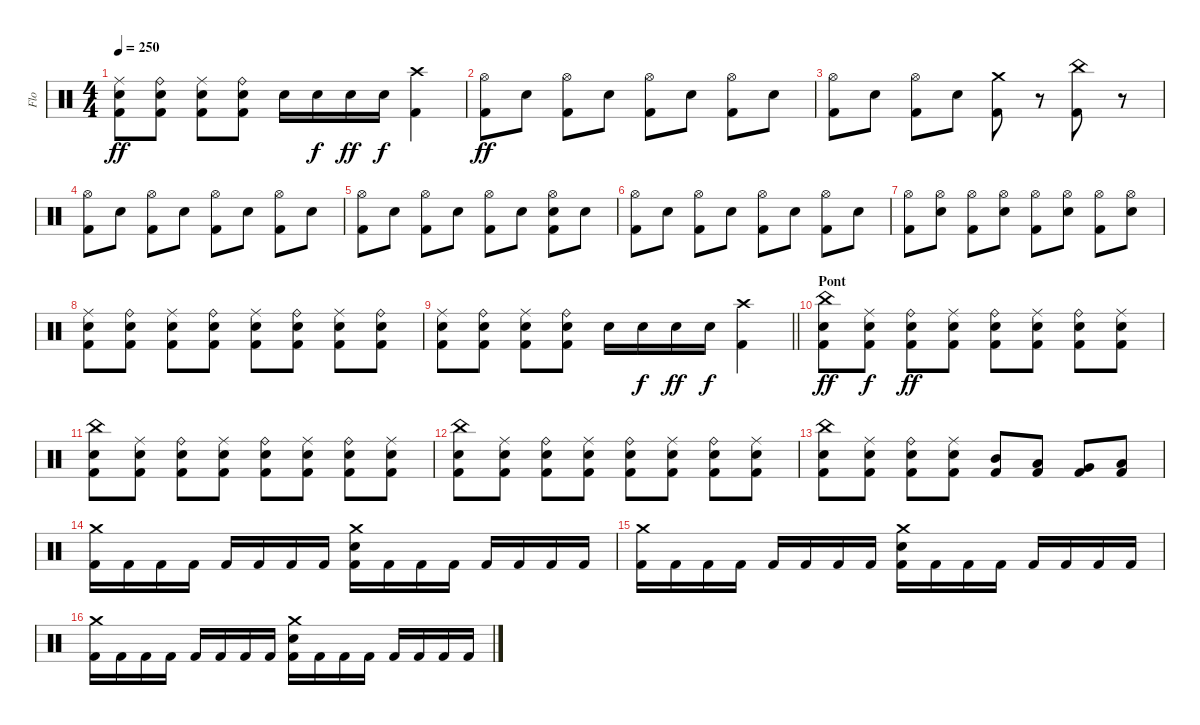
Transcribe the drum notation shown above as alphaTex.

\track ("Flo" "Flo") {instrument percussion}
\staff {score}
\articulation defaults
\ts (4 4)
\tempo 250
\clef neutral
\ks c
("Ride (middle)" "Electric Snare (hit)" "Kick (hit) 2").8{dy ff} ("Ride (bell)" "Electric Snare (hit)" "Kick (hit) 2").8 ("Ride (middle)" "Electric Snare (hit)" "Kick (hit) 2").8 ("Ride (bell)" "Electric Snare (hit)" "Kick (hit) 2").8 "Electric Snare (hit)".16 "Electric Snare (hit)".16{dy f} "Electric Snare (hit)".16{dy ff} "Electric Snare (hit)".16{dy f} ("Crash high (hit)" "Kick (hit) 2").4 |
("Hi-Hat (open)" "Kick (hit) 2").8{dy ff} "Electric Snare (hit)".8 ("Hi-Hat (open)" "Kick (hit) 2").8 "Electric Snare (hit)".8 ("Hi-Hat (open)" "Kick (hit) 2").8 "Electric Snare (hit)".8 ("Hi-Hat (open)" "Kick (hit) 2").8 "Electric Snare (hit)".8 |
("Hi-Hat (open)" "Kick (hit) 2").8 "Electric Snare (hit)".8 ("Hi-Hat (open)" "Kick (hit) 2").8 "Electric Snare (hit)".8 ("Crash medium (hit)" "Kick (hit) 2").8 r.8 ("China (hit)" "Kick (hit) 2").8 r.8 |
("Hi-Hat (open)" "Kick (hit) 2").8 "Electric Snare (hit)".8 ("Hi-Hat (open)" "Kick (hit) 2").8 "Electric Snare (hit)".8 ("Hi-Hat (open)" "Kick (hit) 2").8 "Electric Snare (hit)".8 ("Hi-Hat (open)" "Kick (hit) 2").8 "Electric Snare (hit)".8 |
("Hi-Hat (open)" "Kick (hit) 2").8 "Electric Snare (hit)".8 ("Hi-Hat (open)" "Kick (hit) 2").8 "Electric Snare (hit)".8 ("Hi-Hat (open)" "Kick (hit) 2").8 "Electric Snare (hit)".8 ("Hi-Hat (open)" "Electric Snare (hit)" "Kick (hit) 2").8 "Electric Snare (hit)".8 |
("Hi-Hat (open)" "Kick (hit) 2").8 "Electric Snare (hit)".8 ("Hi-Hat (open)" "Kick (hit) 2").8 "Electric Snare (hit)".8 ("Hi-Hat (open)" "Kick (hit) 2").8 "Electric Snare (hit)".8 ("Hi-Hat (open)" "Kick (hit) 2").8 "Electric Snare (hit)".8 |
("Hi-Hat (open)" "Kick (hit) 2").8 ("Hi-Hat (open)" "Electric Snare (hit)").8 ("Hi-Hat (open)" "Kick (hit) 2").8 ("Hi-Hat (open)" "Electric Snare (hit)").8 ("Hi-Hat (open)" "Kick (hit) 2").8 ("Hi-Hat (open)" "Electric Snare (hit)").8 ("Hi-Hat (open)" "Kick (hit) 2").8 ("Hi-Hat (open)" "Electric Snare (hit)").8 |
("Ride (middle)" "Electric Snare (hit)" "Kick (hit) 2").8 ("Ride (bell)" "Electric Snare (hit)" "Kick (hit) 2").8 ("Ride (middle)" "Electric Snare (hit)" "Kick (hit) 2").8 ("Ride (bell)" "Electric Snare (hit)" "Kick (hit) 2").8 ("Ride (middle)" "Electric Snare (hit)" "Kick (hit) 2").8 ("Ride (bell)" "Electric Snare (hit)" "Kick (hit) 2").8 ("Ride (middle)" "Electric Snare (hit)" "Kick (hit) 2").8 ("Ride (bell)" "Electric Snare (hit)" "Kick (hit) 2").8 |
\barLineRight lightlight
("Ride (middle)" "Electric Snare (hit)" "Kick (hit) 2").8 ("Ride (bell)" "Electric Snare (hit)" "Kick (hit) 2").8 ("Ride (middle)" "Electric Snare (hit)" "Kick (hit) 2").8 ("Ride (bell)" "Electric Snare (hit)" "Kick (hit) 2").8 "Electric Snare (hit)".16 "Electric Snare (hit)".16{dy f} "Electric Snare (hit)".16{dy ff} "Electric Snare (hit)".16{dy f} ("Crash high (hit)" "Kick (hit) 2").4 |
\section ("" "Pont")
("China (hit)" "Electric Snare (hit)" "Kick (hit) 2").8{dy ff} ("Ride (middle)" "Electric Snare (hit)" "Kick (hit) 2").8{dy f} ("Ride (bell)" "Electric Snare (hit)" "Kick (hit) 2").8{dy ff} ("Ride (middle)" "Electric Snare (hit)" "Kick (hit) 2").8 ("Ride (bell)" "Electric Snare (hit)" "Kick (hit) 2").8 ("Ride (middle)" "Electric Snare (hit)" "Kick (hit) 2").8 ("Ride (bell)" "Electric Snare (hit)" "Kick (hit) 2").8 ("Ride (middle)" "Electric Snare (hit)" "Kick (hit) 2").8 |
("China (hit)" "Electric Snare (hit)" "Kick (hit) 2").8 ("Ride (middle)" "Electric Snare (hit)" "Kick (hit) 2").8 ("Ride (bell)" "Electric Snare (hit)" "Kick (hit) 2").8 ("Ride (middle)" "Electric Snare (hit)" "Kick (hit) 2").8 ("Ride (bell)" "Electric Snare (hit)" "Kick (hit) 2").8 ("Ride (middle)" "Electric Snare (hit)" "Kick (hit) 2").8 ("Ride (bell)" "Electric Snare (hit)" "Kick (hit) 2").8 ("Ride (middle)" "Electric Snare (hit)" "Kick (hit) 2").8 |
("China (hit)" "Electric Snare (hit)" "Kick (hit) 2").8 ("Ride (middle)" "Electric Snare (hit)" "Kick (hit) 2").8 ("Ride (bell)" "Electric Snare (hit)" "Kick (hit) 2").8 ("Ride (middle)" "Electric Snare (hit)" "Kick (hit) 2").8 ("Ride (bell)" "Electric Snare (hit)" "Kick (hit) 2").8 ("Ride (middle)" "Electric Snare (hit)" "Kick (hit) 2").8 ("Ride (bell)" "Electric Snare (hit)" "Kick (hit) 2").8 ("Ride (middle)" "Electric Snare (hit)" "Kick (hit) 2").8 |
("China (hit)" "Electric Snare (hit)" "Kick (hit) 2").8 ("Ride (middle)" "Electric Snare (hit)" "Kick (hit) 2").8 ("Ride (bell)" "Electric Snare (hit)" "Kick (hit) 2").8 ("Ride (middle)" "Electric Snare (hit)" "Kick (hit) 2").8 ("Mid Tom (hit)" "Kick (hit) 2").8 ("Low Tom (hit)" "Kick (hit) 2").8 ("Very Low Tom (hit)" "Kick (hit) 2").8 ("Low Floor Tom (hit)" "Kick (hit) 2").8 |
("Crash medium (hit)" "Kick (hit) 2").16 "Kick (hit) 2".16 "Kick (hit) 2".16 "Kick (hit) 2".16 "Kick (hit) 2".16 "Kick (hit) 2".16 "Kick (hit) 2".16 "Kick (hit) 2".16 ("Crash medium (hit)" "Electric Snare (hit)" "Kick (hit) 2").16 "Kick (hit) 2".16 "Kick (hit) 2".16 "Kick (hit) 2".16 "Kick (hit) 2".16 "Kick (hit) 2".16 "Kick (hit) 2".16 "Kick (hit) 2".16 |
("Crash medium (hit)" "Kick (hit) 2").16 "Kick (hit) 2".16 "Kick (hit) 2".16 "Kick (hit) 2".16 "Kick (hit) 2".16 "Kick (hit) 2".16 "Kick (hit) 2".16 "Kick (hit) 2".16 ("Crash medium (hit)" "Electric Snare (hit)" "Kick (hit) 2").16 "Kick (hit) 2".16 "Kick (hit) 2".16 "Kick (hit) 2".16 "Kick (hit) 2".16 "Kick (hit) 2".16 "Kick (hit) 2".16 "Kick (hit) 2".16 |
("Crash medium (hit)" "Kick (hit) 2").16 "Kick (hit) 2".16 "Kick (hit) 2".16 "Kick (hit) 2".16 "Kick (hit) 2".16 "Kick (hit) 2".16 "Kick (hit) 2".16 "Kick (hit) 2".16 ("Crash medium (hit)" "Electric Snare (hit)" "Kick (hit) 2").16 "Kick (hit) 2".16 "Kick (hit) 2".16 "Kick (hit) 2".16 "Kick (hit) 2".16 "Kick (hit) 2".16 "Kick (hit) 2".16 "Kick (hit) 2".16
